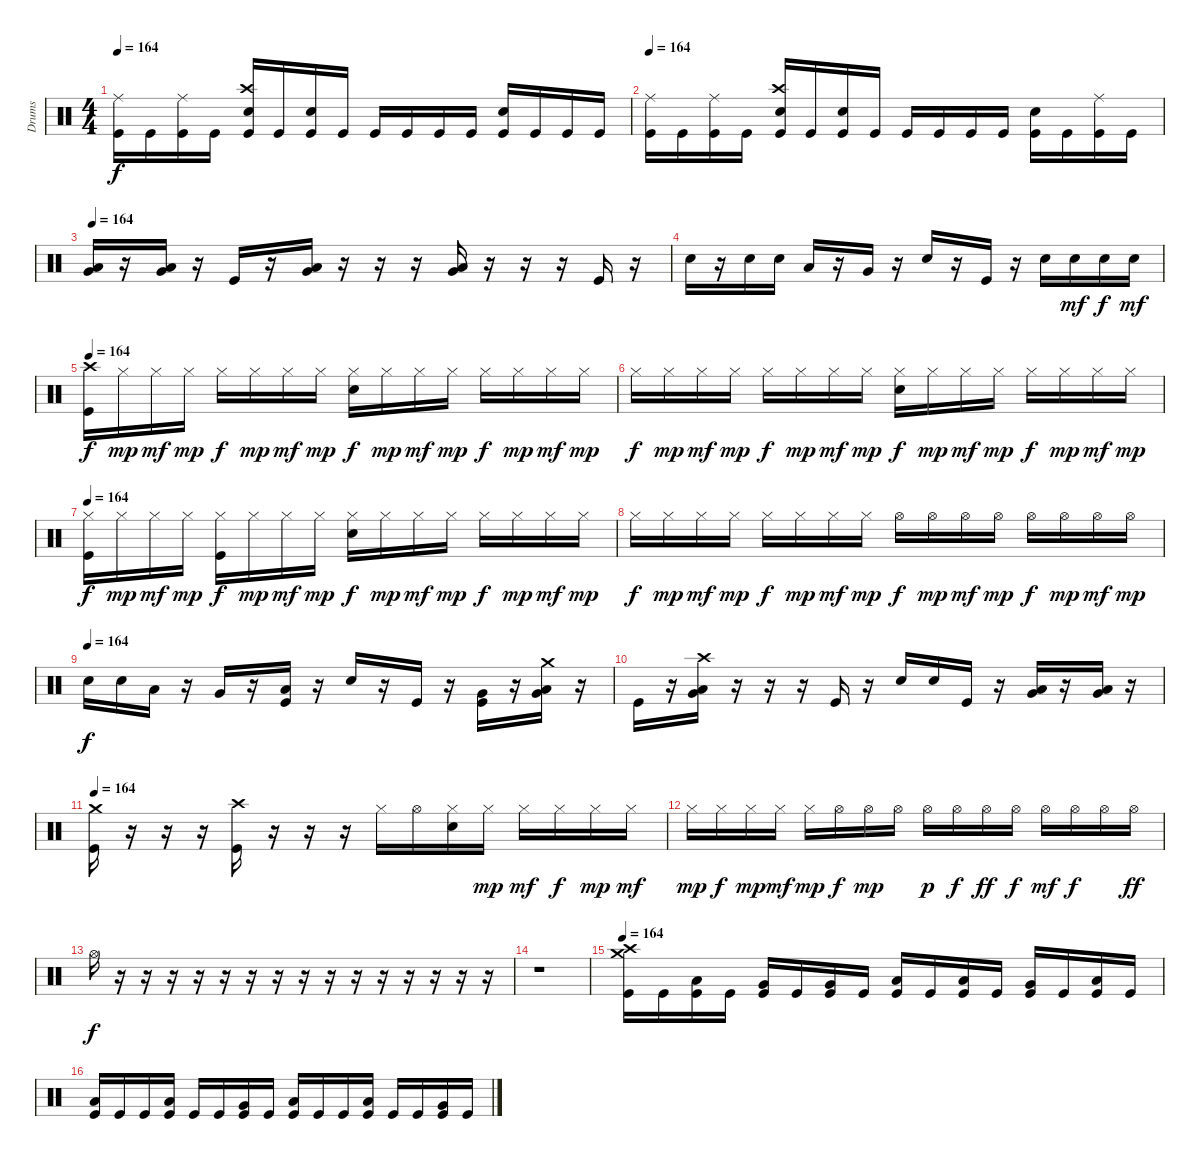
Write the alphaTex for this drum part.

\track ("Drums" "Drums") {instrument percussion}
\staff {score}
\articulation defaults
\ts (4 4)
\tempo 164
\clef neutral
\ks c
("Kick (hit)" "Ride (middle)").16{dy f} "Kick (hit)".16 ("Kick (hit)" "Ride (middle)").16 "Kick (hit)".16 ("Crash high (hit)" "Kick (hit)" "Electric Snare (hit)").16 "Kick (hit)".16 ("Electric Snare (hit)" "Kick (hit)").16 "Kick (hit)".16 "Kick (hit)".16 "Kick (hit)".16 "Kick (hit)".16 "Kick (hit)".16 ("Kick (hit)" "Electric Snare (hit)").16 "Kick (hit)".16 "Kick (hit)".16 "Kick (hit)".16 |
\tempo 164
("Kick (hit)" "Ride (middle)").16 "Kick (hit)".16 ("Kick (hit)" "Ride (middle)").16 "Kick (hit)".16 ("Crash high (hit)" "Kick (hit)" "Electric Snare (hit)").16 "Kick (hit)".16 ("Kick (hit)" "Electric Snare (hit)").16 "Kick (hit)".16 "Kick (hit)".16 "Kick (hit)".16 "Kick (hit)".16 "Kick (hit)".16 ("Kick (hit)" "Electric Snare (hit)").16 "Kick (hit)".16 ("Ride (middle)" "Kick (hit)").16 "Kick (hit)".16 |
\tempo 164
("Low Tom (hit)" "Very Low Tom (hit)").16 r.16 ("Low Floor Tom (hit)" "Very Low Tom (hit)").16 r.16 "Kick (hit)".16 r.16 ("Low Floor Tom (hit)" "Very Low Tom (hit)").16 r.16 r.16 r.16 ("Low Floor Tom (hit)" "Very Low Tom (hit)").16 r.16 r.16 r.16 "Kick (hit)".16 r.16 |
"Electric Snare (hit)".16 r.16 "Electric Snare (hit)".16 "Electric Snare (hit)".16 "Low Tom (hit)".16 r.16 "Very Low Tom (hit)".16 r.16 "Electric Snare (hit)".16 r.16 "Kick (hit)".16 r.16 "Electric Snare (hit)".16 "Electric Snare (hit)".16{dy mf} "Electric Snare (hit)".16{dy f} "Electric Snare (hit)".16{dy mf} |
\tempo 164
("Kick (hit)" "Crash high (hit)").16{dy f} "Hi-Hat (closed)".16{dy mp} "Hi-Hat (closed)".16{dy mf} "Hi-Hat (closed)".16{dy mp} "Hi-Hat (closed)".16{dy f} "Hi-Hat (closed)".16{dy mp} "Hi-Hat (closed)".16{dy mf} "Hi-Hat (closed)".16{dy mp} ("Electric Snare (hit)" "Hi-Hat (closed)").16{dy f} "Hi-Hat (closed)".16{dy mp} "Hi-Hat (closed)".16{dy mf} "Hi-Hat (closed)".16{dy mp} "Hi-Hat (closed)".16{dy f} "Hi-Hat (closed)".16{dy mp} "Hi-Hat (closed)".16{dy mf} "Hi-Hat (closed)".16{dy mp} |
"Hi-Hat (closed)".16{dy f} "Hi-Hat (closed)".16{dy mp} "Hi-Hat (closed)".16{dy mf} "Hi-Hat (closed)".16{dy mp} "Hi-Hat (closed)".16{dy f} "Hi-Hat (closed)".16{dy mp} "Hi-Hat (closed)".16{dy mf} "Hi-Hat (closed)".16{dy mp} ("Electric Snare (hit)" "Hi-Hat (closed)").16{dy f} "Hi-Hat (closed)".16{dy mp} "Hi-Hat (closed)".16{dy mf} "Hi-Hat (closed)".16{dy mp} "Hi-Hat (closed)".16{dy f} "Hi-Hat (closed)".16{dy mp} "Hi-Hat (closed)".16{dy mf} "Hi-Hat (closed)".16{dy mp} |
\tempo 164
("Kick (hit)" "Hi-Hat (closed)").16{dy f} "Hi-Hat (closed)".16{dy mp} "Hi-Hat (closed)".16{dy mf} "Hi-Hat (closed)".16{dy mp} ("Kick (hit)" "Hi-Hat (closed)").16{dy f} "Hi-Hat (closed)".16{dy mp} "Hi-Hat (closed)".16{dy mf} "Hi-Hat (closed)".16{dy mp} ("Electric Snare (hit)" "Hi-Hat (closed)").16{dy f} "Hi-Hat (closed)".16{dy mp} "Hi-Hat (closed)".16{dy mf} "Hi-Hat (closed)".16{dy mp} "Hi-Hat (closed)".16{dy f} "Hi-Hat (closed)".16{dy mp} "Hi-Hat (closed)".16{dy mf} "Hi-Hat (closed)".16{dy mp} |
"Hi-Hat (closed)".16{dy f} "Hi-Hat (closed)".16{dy mp} "Hi-Hat (closed)".16{dy mf} "Hi-Hat (closed)".16{dy mp} "Hi-Hat (closed)".16{dy f} "Hi-Hat (closed)".16{dy mp} "Hi-Hat (closed)".16{dy mf} "Hi-Hat (closed)".16{dy mp} "Hi-Hat (open)".16{dy f} "Hi-Hat (open)".16{dy mp} "Hi-Hat (open)".16{dy mf} "Hi-Hat (open)".16{dy mp} "Hi-Hat (open)".16{dy f} "Hi-Hat (open)".16{dy mp} "Hi-Hat (open)".16{dy mf} "Hi-Hat (open)".16{dy mp} |
\tempo 156
\tempo (164)
"Electric Snare (hit)".16{dy f} "Electric Snare (hit)".16 "Low Tom (hit)".16 r.16 "Very Low Tom (hit)".16 r.16 ("Kick (hit)" "Low Floor Tom (hit)").16 r.16 "Electric Snare (hit)".16 r.16 "Kick (hit)".16 r.16 ("Kick (hit)" "Very Low Tom (hit)").16 r.16 ("Very Low Tom (hit)" "Low Tom (hit)" "Crash medium (hit)").16 r.16 |
"Kick (hit)".16 r.16 ("Very Low Tom (hit)" "Low Floor Tom (hit)" "Crash high (hit)").16 r.16 r.16 r.16 "Kick (hit)".16 r.16 "Electric Snare (hit)".16 "Electric Snare (hit)".16 "Kick (hit)".16 r.16 ("Low Tom (hit)" "Very Low Tom (hit)").16 r.16 ("Very Low Tom (hit)" "Low Floor Tom (hit)").16 r.16 |
\tempo 164
("Crash medium (hit)" "Kick (hit)").16 r.16 r.16 r.16 ("Crash high (hit)" "Kick (hit)").16 r.16 r.16 r.16 "Hi-Hat (closed)".16 "Hi-Hat (open)".16 ("Hi-Hat (closed)" "Electric Snare (hit)").16 "Hi-Hat (closed)".16{dy mp} "Hi-Hat (closed)".16{dy mf} "Hi-Hat (closed)".16{dy f} "Hi-Hat (closed)".16{dy mp} "Hi-Hat (closed)".16{dy mf} |
"Hi-Hat (closed)".16{dy mp} "Hi-Hat (closed)".16{dy f} "Hi-Hat (closed)".16{dy mp} "Hi-Hat (closed)".16{dy mf} "Hi-Hat (closed)".16{dy mp} "Hi-Hat (open)".16{dy f} "Hi-Hat (open)".16{dy mp} "Hi-Hat (open)".16 "Hi-Hat (open)".16{dy p} "Hi-Hat (open)".16{dy f} "Hi-Hat (open)".16{dy ff} "Hi-Hat (open)".16{dy f} "Hi-Hat (open)".16{dy mf} "Hi-Hat (open)".16{dy f} "Hi-Hat (open)".16 "Hi-Hat (open)".16{dy ff} |
"Hi-Hat (open)".16{dy f} r.16 r.16 r.16 r.16 r.16 r.16 r.16 r.16 r.16 r.16 r.16 r.16 r.16 r.16 r.16 |
r.1 |
\tempo 164
("Kick (hit)" "Crash high (hit)" "Crash medium (hit)").16 "Kick (hit)".16 ("Kick (hit)" "Low Tom (hit)").16 "Kick (hit)".16 ("Kick (hit)" "Very Low Tom (hit)").16 "Kick (hit)".16 ("Kick (hit)" "Very Low Tom (hit)").16 "Kick (hit)".16 ("Kick (hit)" "Low Floor Tom (hit)").16 "Kick (hit)".16 ("Kick (hit)" "Low Tom (hit)").16 "Kick (hit)".16 ("Kick (hit)" "Very Low Tom (hit)").16 "Kick (hit)".16 ("Kick (hit)" "Low Floor Tom (hit)").16 "Kick (hit)".16 |
("Kick (hit)" "Low Tom (hit)").16 "Kick (hit)".16 "Kick (hit)".16 ("Kick (hit)" "Low Tom (hit)").16 "Kick (hit)".16 "Kick (hit)".16 ("Kick (hit)" "Very Low Tom (hit)").16 "Kick (hit)".16 ("Kick (hit)" "Low Tom (hit)").16 "Kick (hit)".16 "Kick (hit)".16 ("Kick (hit)" "Low Floor Tom (hit)").16 "Kick (hit)".16 "Kick (hit)".16 ("Kick (hit)" "Very Low Tom (hit)").16 "Kick (hit)".16
